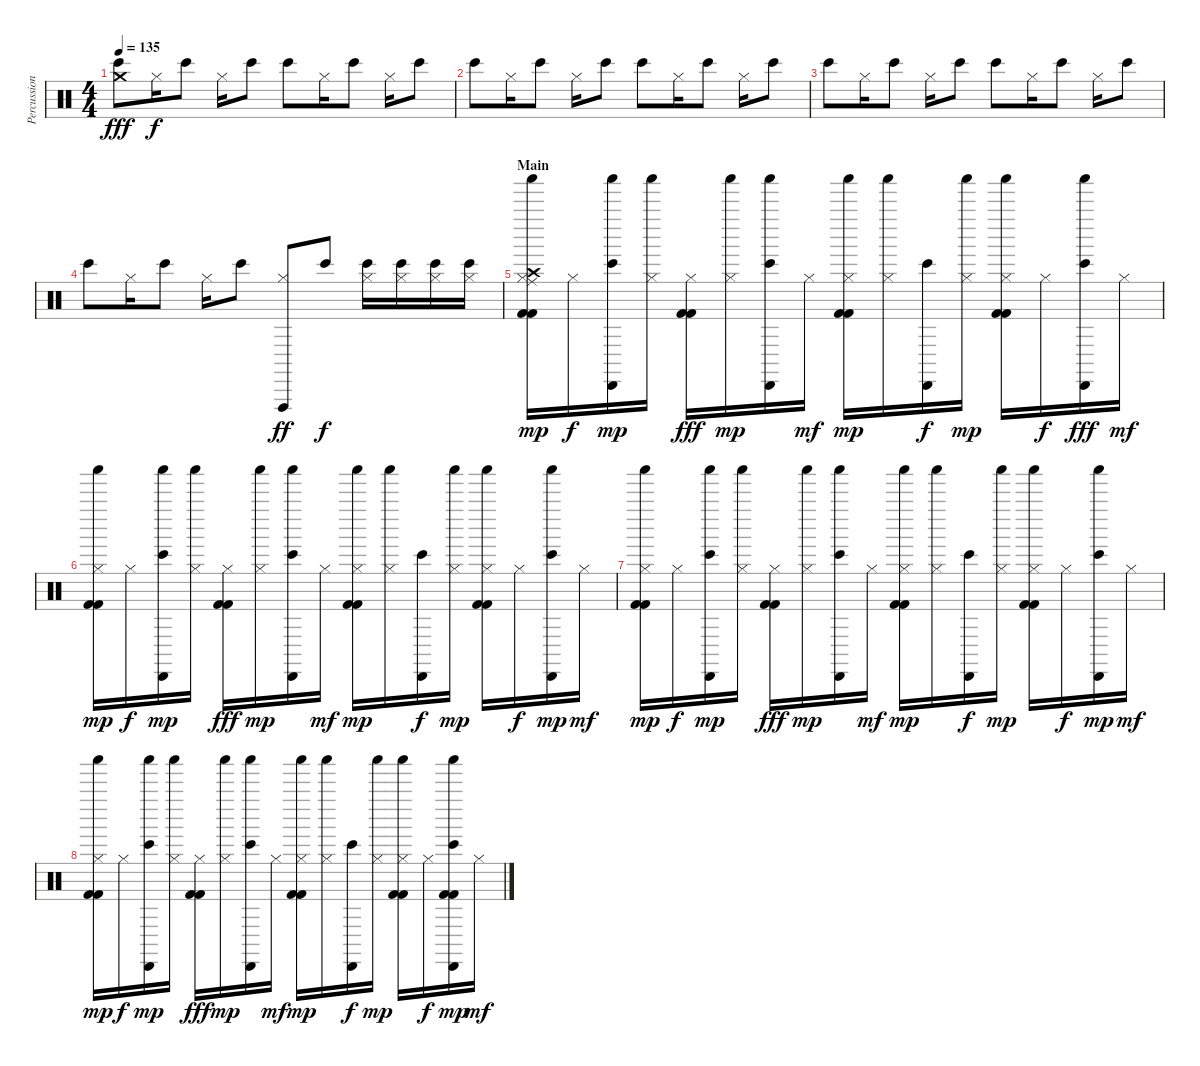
\track ("Percussion" "Percussion") {instrument percussion}
\staff {score}
\articulation defaults
\ts (4 4)
\tempo 135
\clef neutral
\ks c
("Crash medium (hit)" "Bongo High (hit)").8{dy fff} "Hi-Hat (closed)".16{dy f} "Bongo High (hit)".8 "Hi-Hat (closed)".16 "Bongo High (hit)".8 "Bongo High (hit)".8 "Hi-Hat (closed)".16 "Bongo High (hit)".8 "Hi-Hat (closed)".16 "Bongo High (hit)".8 |
"Bongo High (hit)".8 "Hi-Hat (closed)".16 "Bongo High (hit)".8 "Hi-Hat (closed)".16 "Bongo High (hit)".8 "Bongo High (hit)".8 "Hi-Hat (closed)".16 "Bongo High (hit)".8 "Hi-Hat (closed)".16 "Bongo High (hit)".8 |
"Bongo High (hit)".8 "Hi-Hat (closed)".16 "Bongo High (hit)".8 "Hi-Hat (closed)".16 "Bongo High (hit)".8 "Bongo High (hit)".8 "Hi-Hat (closed)".16 "Bongo High (hit)".8 "Hi-Hat (closed)".16 "Bongo High (hit)".8 |
"Bongo High (hit)".8 "Hi-Hat (closed)".16 "Bongo High (hit)".8 "Hi-Hat (closed)".16 "Bongo High (hit)".8 ("Hi-Hat (closed)" "Vibraslap (hit)").8{dy ff} "Bongo High (hit)".8{dy f} ("Bongo High (hit)" "Hi-Hat (closed)").16 ("Bongo High (hit)" "Hi-Hat (closed)").16 ("Bongo High (hit)" "Hi-Hat (closed)").16 ("Bongo High (hit)" "Hi-Hat (closed)").16 |
\section ("" "Main")
("Ride (middle)" "Hi-Hat (closed)" "Crash high (hit)" "Kick (hit) 2" "Kick (hit) 2" "Shaker (hit)").16{dy mp} "Hi-Hat (closed)".16{dy f} ("Cabasa (hit)" "Bongo High (hit)" "Shaker (hit)").16{dy mp} ("Hi-Hat (closed)" "Shaker (hit)").16 ("Hi-Hat (closed)" "Kick (hit) 2" "Kick (hit) 2").16{dy fff} ("Hi-Hat (closed)" "Shaker (hit)").16{dy mp} ("Cabasa (hit)" "Bongo High (hit)" "Shaker (hit)").16 "Hi-Hat (closed)".16{dy mf} ("Hi-Hat (closed)" "Kick (hit) 2" "Kick (hit) 2" "Shaker (hit)").16{dy mp} ("Hi-Hat (closed)" "Shaker (hit)").16 ("Cabasa (hit)" "Bongo High (hit)").16{dy f} ("Hi-Hat (closed)" "Shaker (hit)").16{dy mp} ("Hi-Hat (closed)" "Kick (hit) 2" "Kick (hit) 2" "Shaker (hit)").16 "Hi-Hat (closed)".16{dy f} ("Cabasa (hit)" "Bongo High (hit)" "Shaker (hit)").16{dy fff} "Hi-Hat (closed)".16{dy mf} |
("Hi-Hat (closed)" "Kick (hit) 2" "Kick (hit) 2" "Shaker (hit)").16{dy mp} "Hi-Hat (closed)".16{dy f} ("Cabasa (hit)" "Bongo High (hit)" "Shaker (hit)").16{dy mp} ("Hi-Hat (closed)" "Shaker (hit)").16 ("Hi-Hat (closed)" "Kick (hit) 2" "Kick (hit) 2").16{dy fff} ("Hi-Hat (closed)" "Shaker (hit)").16{dy mp} ("Cabasa (hit)" "Bongo High (hit)" "Shaker (hit)").16 "Hi-Hat (closed)".16{dy mf} ("Hi-Hat (closed)" "Kick (hit) 2" "Kick (hit) 2" "Shaker (hit)").16{dy mp} ("Hi-Hat (closed)" "Shaker (hit)").16 ("Cabasa (hit)" "Bongo High (hit)").16{dy f} ("Hi-Hat (closed)" "Shaker (hit)").16{dy mp} ("Hi-Hat (closed)" "Kick (hit) 2" "Kick (hit) 2" "Shaker (hit)").16 "Hi-Hat (closed)".16{dy f} ("Cabasa (hit)" "Bongo High (hit)" "Shaker (hit)").16{dy mp} "Hi-Hat (closed)".16{dy mf} |
("Hi-Hat (closed)" "Kick (hit) 2" "Kick (hit) 2" "Shaker (hit)").16{dy mp} "Hi-Hat (closed)".16{dy f} ("Cabasa (hit)" "Bongo High (hit)" "Shaker (hit)").16{dy mp} ("Hi-Hat (closed)" "Shaker (hit)").16 ("Hi-Hat (closed)" "Kick (hit) 2" "Kick (hit) 2").16{dy fff} ("Hi-Hat (closed)" "Shaker (hit)").16{dy mp} ("Cabasa (hit)" "Bongo High (hit)" "Shaker (hit)").16 "Hi-Hat (closed)".16{dy mf} ("Hi-Hat (closed)" "Kick (hit) 2" "Kick (hit) 2" "Shaker (hit)").16{dy mp} ("Hi-Hat (closed)" "Shaker (hit)").16 ("Cabasa (hit)" "Bongo High (hit)").16{dy f} ("Hi-Hat (closed)" "Shaker (hit)").16{dy mp} ("Hi-Hat (closed)" "Kick (hit) 2" "Kick (hit) 2" "Shaker (hit)").16 "Hi-Hat (closed)".16{dy f} ("Cabasa (hit)" "Bongo High (hit)" "Shaker (hit)").16{dy mp} "Hi-Hat (closed)".16{dy mf} |
("Hi-Hat (closed)" "Kick (hit) 2" "Kick (hit) 2" "Shaker (hit)").16{dy mp} "Hi-Hat (closed)".16{dy f} ("Cabasa (hit)" "Bongo High (hit)" "Shaker (hit)").16{dy mp} ("Hi-Hat (closed)" "Shaker (hit)").16 ("Hi-Hat (closed)" "Kick (hit) 2" "Kick (hit) 2").16{dy fff} ("Hi-Hat (closed)" "Shaker (hit)").16{dy mp} ("Cabasa (hit)" "Bongo High (hit)" "Shaker (hit)").16 "Hi-Hat (closed)".16{dy mf} ("Hi-Hat (closed)" "Kick (hit) 2" "Kick (hit) 2" "Shaker (hit)").16{dy mp} ("Hi-Hat (closed)" "Shaker (hit)").16 ("Cabasa (hit)" "Bongo High (hit)").16{dy f} ("Hi-Hat (closed)" "Shaker (hit)").16{dy mp} ("Hi-Hat (closed)" "Kick (hit) 2" "Kick (hit) 2" "Shaker (hit)").16 "Hi-Hat (closed)".16{dy f} ("Cabasa (hit)" "Bongo High (hit)" "Kick (hit) 2" "Kick (hit) 2" "Shaker (hit)").16{dy mp} "Hi-Hat (closed)".16{dy mf}
